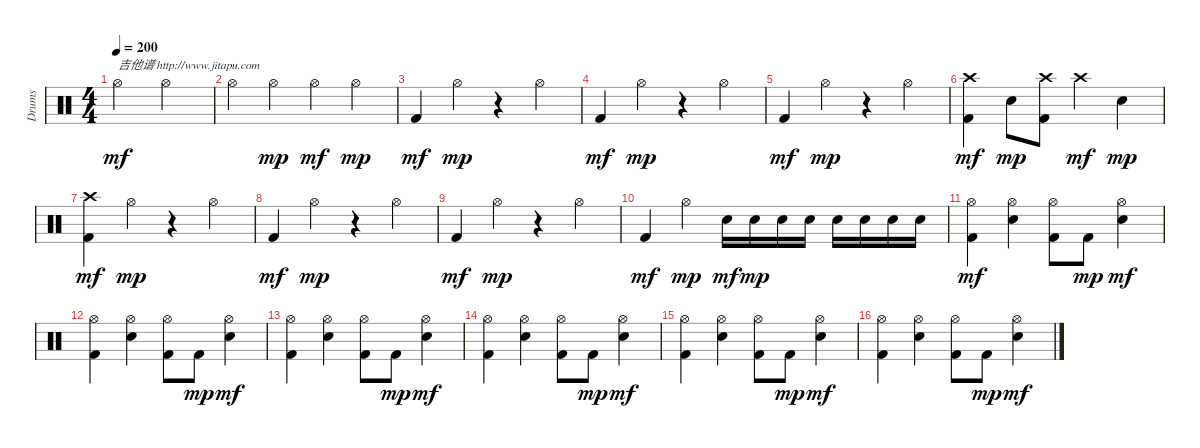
\track ("Drums" "Drums") {instrument percussion}
\staff {score}
\articulation defaults
\ts (4 4)
\tempo 200
\clef neutral
\ks c "Hi-Hat (open)".2{txt "吉他谱 http://www.jitapu.com" dy mf} "Hi-Hat (open)".2
|
"Hi-Hat (open)".4 "Hi-Hat (open)".4{dy mp} "Hi-Hat (open)".4{dy mf} "Hi-Hat (open)".4{dy mp} |
"Kick (hit) 2".4{dy mf} "Hi-Hat (open)".4{dy mp} r.4 "Hi-Hat (open)".4 |
"Kick (hit) 2".4{dy mf} "Hi-Hat (open)".4{dy mp} r.4 "Hi-Hat (open)".4 |
"Kick (hit) 2".4{dy mf} "Hi-Hat (open)".4{dy mp} r.4 "Hi-Hat (open)".4 |
("Crash high (hit)" "Kick (hit) 2").4{dy mf} "Snare (hit) 2".8{dy mp} ("Crash high (hit)" "Kick (hit) 2").8 "Crash high (hit)".4{dy mf} "Snare (hit) 2".4{dy mp} |
("Crash high (hit)" "Kick (hit) 2").4{dy mf} "Hi-Hat (open)".4{dy mp} r.4 "Hi-Hat (open)".4 |
"Kick (hit) 2".4{dy mf} "Hi-Hat (open)".4{dy mp} r.4 "Hi-Hat (open)".4 |
"Kick (hit) 2".4{dy mf} "Hi-Hat (open)".4{dy mp} r.4 "Hi-Hat (open)".4 |
"Kick (hit) 2".4{dy mf} "Hi-Hat (open)".4{dy mp} "Snare (hit) 2".16{dy mf} "Snare (hit) 2".16{dy mp} "Snare (hit) 2".16 "Snare (hit) 2".16 "Snare (hit) 2".16 "Snare (hit) 2".16 "Snare (hit) 2".16 "Snare (hit) 2".16 |
("Hi-Hat (open)" "Kick (hit) 2").4{dy mf} ("Snare (hit) 2" "Hi-Hat (open)").4 ("Hi-Hat (open)" "Kick (hit) 2").8 "Kick (hit) 2".8{dy mp} ("Snare (hit) 2" "Hi-Hat (open)").4{dy mf} |
("Hi-Hat (open)" "Kick (hit) 2").4 ("Snare (hit) 2" "Hi-Hat (open)").4 ("Hi-Hat (open)" "Kick (hit) 2").8 "Kick (hit) 2".8{dy mp} ("Snare (hit) 2" "Hi-Hat (open)").4{dy mf} |
("Hi-Hat (open)" "Kick (hit) 2").4 ("Snare (hit) 2" "Hi-Hat (open)").4 ("Hi-Hat (open)" "Kick (hit) 2").8 "Kick (hit) 2".8{dy mp} ("Snare (hit) 2" "Hi-Hat (open)").4{dy mf} |
("Hi-Hat (open)" "Kick (hit) 2").4 ("Snare (hit) 2" "Hi-Hat (open)").4 ("Hi-Hat (open)" "Kick (hit) 2").8 "Kick (hit) 2".8{dy mp} ("Snare (hit) 2" "Hi-Hat (open)").4{dy mf} |
("Hi-Hat (open)" "Kick (hit) 2").4 ("Snare (hit) 2" "Hi-Hat (open)").4 ("Hi-Hat (open)" "Kick (hit) 2").8 "Kick (hit) 2".8{dy mp} ("Snare (hit) 2" "Hi-Hat (open)").4{dy mf} |
("Hi-Hat (open)" "Kick (hit) 2").4 ("Snare (hit) 2" "Hi-Hat (open)").4 ("Hi-Hat (open)" "Kick (hit) 2").8 "Kick (hit) 2".8{dy mp} ("Snare (hit) 2" "Hi-Hat (open)").4{dy mf}
